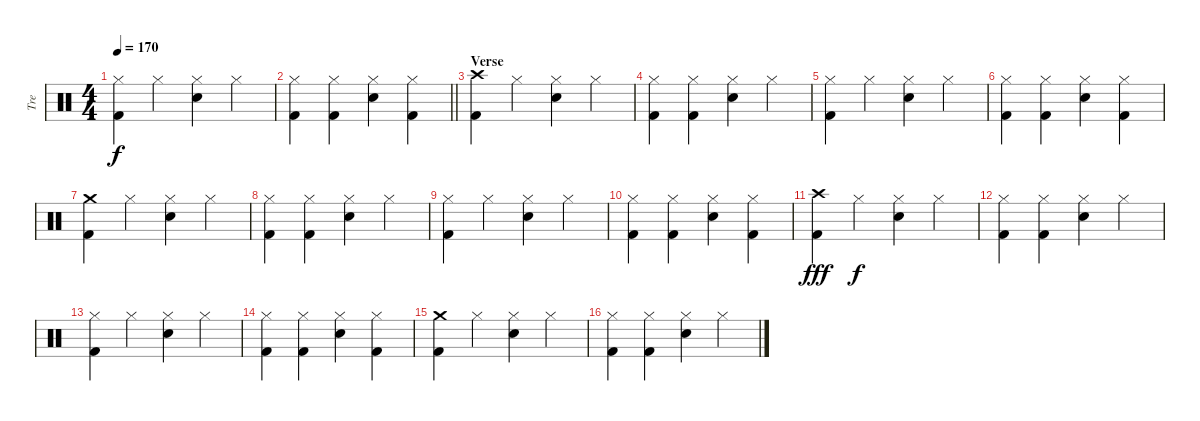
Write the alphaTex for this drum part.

\track ("Tre" "Tre") {instrument percussion}
\staff {score}
\articulation defaults
\ts (4 4)
\tempo 170
\clef neutral
\ks c
("Hi-Hat (closed)" "Kick (hit) 2").4{dy f} "Hi-Hat (closed)".4 ("Hi-Hat (closed)" "Snare (hit) 2").4 "Hi-Hat (closed)".4 |
\barLineRight lightlight
("Hi-Hat (closed)" "Kick (hit) 2").4 ("Hi-Hat (closed)" "Kick (hit) 2").4 ("Hi-Hat (closed)" "Snare (hit) 2").4 ("Hi-Hat (closed)" "Kick (hit) 2").4 |
\section ("" "Verse")
("Crash high (hit)" "Kick (hit) 2").4 "Hi-Hat (closed)".4 ("Hi-Hat (closed)" "Snare (hit) 2").4 "Hi-Hat (closed)".4 |
("Hi-Hat (closed)" "Kick (hit) 2").4 ("Hi-Hat (closed)" "Kick (hit) 2").4 ("Hi-Hat (closed)" "Snare (hit) 2").4 "Hi-Hat (closed)".4 |
("Hi-Hat (closed)" "Kick (hit) 2").4 "Hi-Hat (closed)".4 ("Hi-Hat (closed)" "Snare (hit) 2").4 "Hi-Hat (closed)".4 |
("Hi-Hat (closed)" "Kick (hit) 2").4 ("Hi-Hat (closed)" "Kick (hit) 2").4 ("Hi-Hat (closed)" "Snare (hit) 2").4 ("Hi-Hat (closed)" "Kick (hit) 2").4 |
("Crash medium (hit)" "Kick (hit) 2").4 "Hi-Hat (closed)".4 ("Hi-Hat (closed)" "Snare (hit) 2").4 "Hi-Hat (closed)".4 |
("Hi-Hat (closed)" "Kick (hit) 2").4 ("Hi-Hat (closed)" "Kick (hit) 2").4 ("Hi-Hat (closed)" "Snare (hit) 2").4 "Hi-Hat (closed)".4 |
("Hi-Hat (closed)" "Kick (hit) 2").4 "Hi-Hat (closed)".4 ("Hi-Hat (closed)" "Snare (hit) 2").4 "Hi-Hat (closed)".4 |
("Hi-Hat (closed)" "Kick (hit) 2").4 ("Hi-Hat (closed)" "Kick (hit) 2").4 ("Hi-Hat (closed)" "Snare (hit) 2").4 ("Hi-Hat (closed)" "Kick (hit) 2").4 |
("Crash high (hit)" "Kick (hit) 2").4{dy fff} "Hi-Hat (closed)".4{dy f} ("Hi-Hat (closed)" "Snare (hit) 2").4 "Hi-Hat (closed)".4 |
("Hi-Hat (closed)" "Kick (hit) 2").4 ("Hi-Hat (closed)" "Kick (hit) 2").4 ("Hi-Hat (closed)" "Snare (hit) 2").4 "Hi-Hat (closed)".4 |
("Hi-Hat (closed)" "Kick (hit) 2").4 "Hi-Hat (closed)".4 ("Hi-Hat (closed)" "Snare (hit) 2").4 "Hi-Hat (closed)".4 |
("Hi-Hat (closed)" "Kick (hit) 2").4 ("Hi-Hat (closed)" "Kick (hit) 2").4 ("Hi-Hat (closed)" "Snare (hit) 2").4 ("Hi-Hat (closed)" "Kick (hit) 2").4 |
("Crash medium (hit)" "Kick (hit) 2").4 "Hi-Hat (closed)".4 ("Hi-Hat (closed)" "Snare (hit) 2").4 "Hi-Hat (closed)".4 |
("Hi-Hat (closed)" "Kick (hit) 2").4 ("Hi-Hat (closed)" "Kick (hit) 2").4 ("Hi-Hat (closed)" "Snare (hit) 2").4 "Hi-Hat (closed)".4
